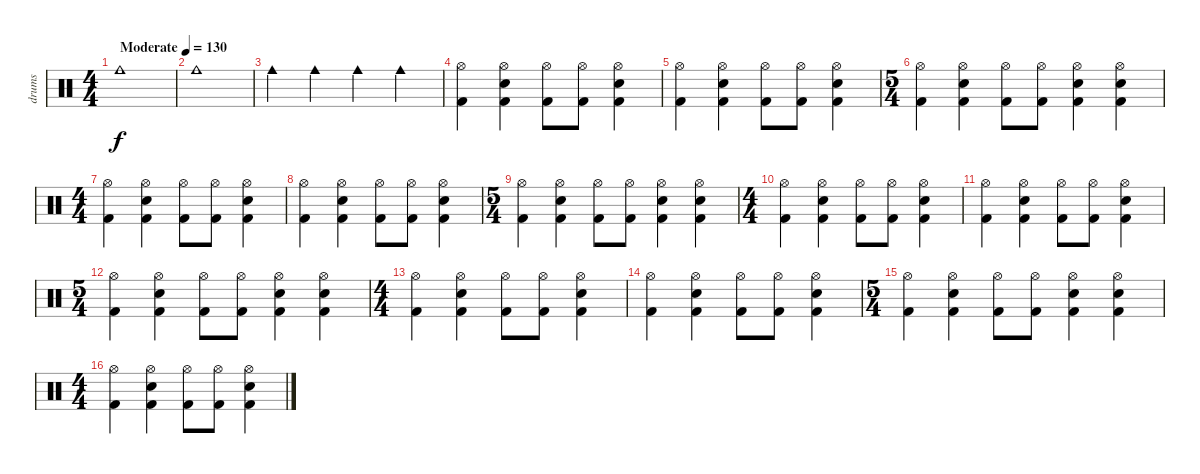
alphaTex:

\track ("drums" "drums") {instrument percussion}
\staff {score}
\articulation defaults
\ts (4 4)
\tempo (130 "Moderate")
\clef neutral
\ks c "Cowbell medium (hit)".1{dy f}
|
"Cowbell medium (hit)".1 |
"Cowbell medium (hit)".4 "Cowbell medium (hit)".4 "Cowbell medium (hit)".4 "Cowbell medium (hit)".4 |
("Hi-Hat (open)" "Kick (hit) 2").4 ("Hi-Hat (open)" "Snare (hit) 2" "Kick (hit) 2").4 ("Hi-Hat (open)" "Kick (hit) 2").8 ("Hi-Hat (open)" "Kick (hit) 2").8 ("Hi-Hat (open)" "Snare (hit) 2" "Kick (hit) 2").4 |
("Hi-Hat (open)" "Kick (hit) 2").4 ("Hi-Hat (open)" "Snare (hit) 2" "Kick (hit) 2").4 ("Hi-Hat (open)" "Kick (hit) 2").8 ("Hi-Hat (open)" "Kick (hit) 2").8 ("Hi-Hat (open)" "Snare (hit) 2" "Kick (hit) 2").4 |
\ts (5 4)
("Hi-Hat (open)" "Kick (hit) 2").4 ("Hi-Hat (open)" "Snare (hit) 2" "Kick (hit) 2").4 ("Hi-Hat (open)" "Kick (hit) 2").8 ("Hi-Hat (open)" "Kick (hit) 2").8 ("Hi-Hat (open)" "Snare (hit) 2" "Kick (hit) 2").4 ("Hi-Hat (open)" "Snare (hit) 2" "Kick (hit) 2").4 |
\ts (4 4)
("Hi-Hat (open)" "Kick (hit) 2").4 ("Hi-Hat (open)" "Snare (hit) 2" "Kick (hit) 2").4 ("Hi-Hat (open)" "Kick (hit) 2").8 ("Hi-Hat (open)" "Kick (hit) 2").8 ("Hi-Hat (open)" "Snare (hit) 2" "Kick (hit) 2").4 |
("Hi-Hat (open)" "Kick (hit) 2").4 ("Hi-Hat (open)" "Snare (hit) 2" "Kick (hit) 2").4 ("Hi-Hat (open)" "Kick (hit) 2").8 ("Hi-Hat (open)" "Kick (hit) 2").8 ("Hi-Hat (open)" "Snare (hit) 2" "Kick (hit) 2").4 |
\ts (5 4)
("Hi-Hat (open)" "Kick (hit) 2").4 ("Hi-Hat (open)" "Snare (hit) 2" "Kick (hit) 2").4 ("Hi-Hat (open)" "Kick (hit) 2").8 ("Hi-Hat (open)" "Kick (hit) 2").8 ("Hi-Hat (open)" "Snare (hit) 2" "Kick (hit) 2").4 ("Hi-Hat (open)" "Snare (hit) 2" "Kick (hit) 2").4 |
\ts (4 4)
("Hi-Hat (open)" "Kick (hit) 2").4 ("Hi-Hat (open)" "Snare (hit) 2" "Kick (hit) 2").4 ("Hi-Hat (open)" "Kick (hit) 2").8 ("Hi-Hat (open)" "Kick (hit) 2").8 ("Hi-Hat (open)" "Snare (hit) 2" "Kick (hit) 2").4 |
("Hi-Hat (open)" "Kick (hit) 2").4 ("Hi-Hat (open)" "Snare (hit) 2" "Kick (hit) 2").4 ("Hi-Hat (open)" "Kick (hit) 2").8 ("Hi-Hat (open)" "Kick (hit) 2").8 ("Hi-Hat (open)" "Snare (hit) 2" "Kick (hit) 2").4 |
\ts (5 4)
("Hi-Hat (open)" "Kick (hit) 2").4 ("Hi-Hat (open)" "Snare (hit) 2" "Kick (hit) 2").4 ("Hi-Hat (open)" "Kick (hit) 2").8 ("Hi-Hat (open)" "Kick (hit) 2").8 ("Hi-Hat (open)" "Snare (hit) 2" "Kick (hit) 2").4 ("Hi-Hat (open)" "Snare (hit) 2" "Kick (hit) 2").4 |
\ts (4 4)
("Hi-Hat (open)" "Kick (hit) 2").4 ("Hi-Hat (open)" "Snare (hit) 2" "Kick (hit) 2").4 ("Hi-Hat (open)" "Kick (hit) 2").8 ("Hi-Hat (open)" "Kick (hit) 2").8 ("Hi-Hat (open)" "Snare (hit) 2" "Kick (hit) 2").4 |
("Hi-Hat (open)" "Kick (hit) 2").4 ("Hi-Hat (open)" "Snare (hit) 2" "Kick (hit) 2").4 ("Hi-Hat (open)" "Kick (hit) 2").8 ("Hi-Hat (open)" "Kick (hit) 2").8 ("Hi-Hat (open)" "Snare (hit) 2" "Kick (hit) 2").4 |
\ts (5 4)
("Hi-Hat (open)" "Kick (hit) 2").4 ("Hi-Hat (open)" "Snare (hit) 2" "Kick (hit) 2").4 ("Hi-Hat (open)" "Kick (hit) 2").8 ("Hi-Hat (open)" "Kick (hit) 2").8 ("Hi-Hat (open)" "Snare (hit) 2" "Kick (hit) 2").4 ("Hi-Hat (open)" "Snare (hit) 2" "Kick (hit) 2").4 |
\ts (4 4)
("Hi-Hat (open)" "Kick (hit) 2").4 ("Hi-Hat (open)" "Snare (hit) 2" "Kick (hit) 2").4 ("Hi-Hat (open)" "Kick (hit) 2").8 ("Hi-Hat (open)" "Kick (hit) 2").8 ("Hi-Hat (open)" "Snare (hit) 2" "Kick (hit) 2").4
